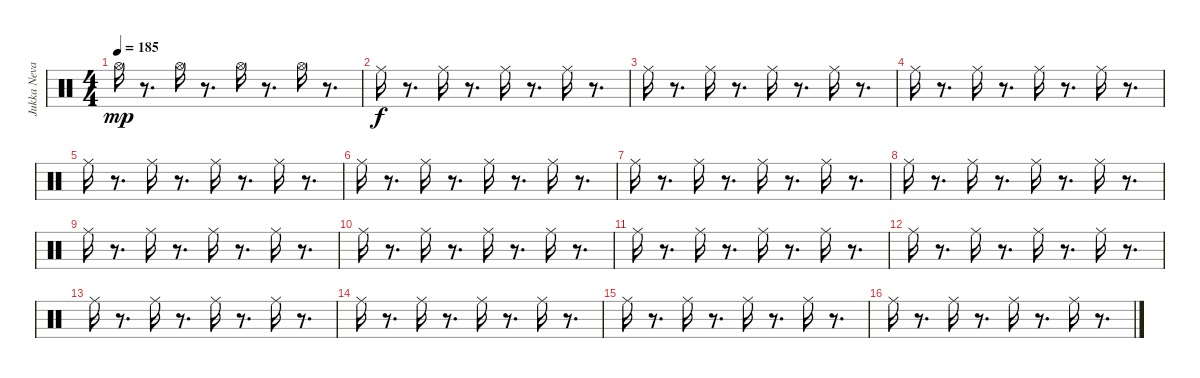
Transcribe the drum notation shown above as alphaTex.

\track ("Jukka Nevalinen" "Jukka Neva") {instrument percussion}
\staff {score}
\articulation defaults
\ts (4 4)
\tempo 185
\clef neutral
\ks c "Hi-Hat (open)".16{dy mp}
r.8{d} "Hi-Hat (open)".16 r.8{d} "Hi-Hat (open)".16 r.8{d} "Hi-Hat (open)".16 r.8{d} |
"Ride (middle)".16{dy f} r.8{d} "Ride (middle)".16 r.8{d} "Ride (middle)".16 r.8{d} "Ride (middle)".16 r.8{d} |
"Ride (middle)".16 r.8{d} "Ride (middle)".16 r.8{d} "Ride (middle)".16 r.8{d} "Ride (middle)".16 r.8{d} |
"Ride (middle)".16 r.8{d} "Ride (middle)".16 r.8{d} "Ride (middle)".16 r.8{d} "Ride (middle)".16 r.8{d} |
"Ride (middle)".16 r.8{d} "Ride (middle)".16 r.8{d} "Ride (middle)".16 r.8{d} "Ride (middle)".16 r.8{d} |
"Ride (middle)".16 r.8{d} "Ride (middle)".16 r.8{d} "Ride (middle)".16 r.8{d} "Ride (middle)".16 r.8{d} |
"Ride (middle)".16 r.8{d} "Ride (middle)".16 r.8{d} "Ride (middle)".16 r.8{d} "Ride (middle)".16 r.8{d} |
"Ride (middle)".16 r.8{d} "Ride (middle)".16 r.8{d} "Ride (middle)".16 r.8{d} "Ride (middle)".16 r.8{d} |
"Ride (middle)".16 r.8{d} "Ride (middle)".16 r.8{d} "Ride (middle)".16 r.8{d} "Ride (middle)".16 r.8{d} |
"Ride (middle)".16 r.8{d} "Ride (middle)".16 r.8{d} "Ride (middle)".16 r.8{d} "Ride (middle)".16 r.8{d} |
"Ride (middle)".16 r.8{d} "Ride (middle)".16 r.8{d} "Ride (middle)".16 r.8{d} "Ride (middle)".16 r.8{d} |
"Ride (middle)".16 r.8{d} "Ride (middle)".16 r.8{d} "Ride (middle)".16 r.8{d} "Ride (middle)".16 r.8{d} |
"Ride (middle)".16 r.8{d} "Ride (middle)".16 r.8{d} "Ride (middle)".16 r.8{d} "Ride (middle)".16 r.8{d} |
"Ride (middle)".16 r.8{d} "Ride (middle)".16 r.8{d} "Ride (middle)".16 r.8{d} "Ride (middle)".16 r.8{d} |
"Ride (middle)".16 r.8{d} "Ride (middle)".16 r.8{d} "Ride (middle)".16 r.8{d} "Ride (middle)".16 r.8{d} |
"Ride (middle)".16 r.8{d} "Ride (middle)".16 r.8{d} "Ride (middle)".16 r.8{d} "Ride (middle)".16 r.8{d}
